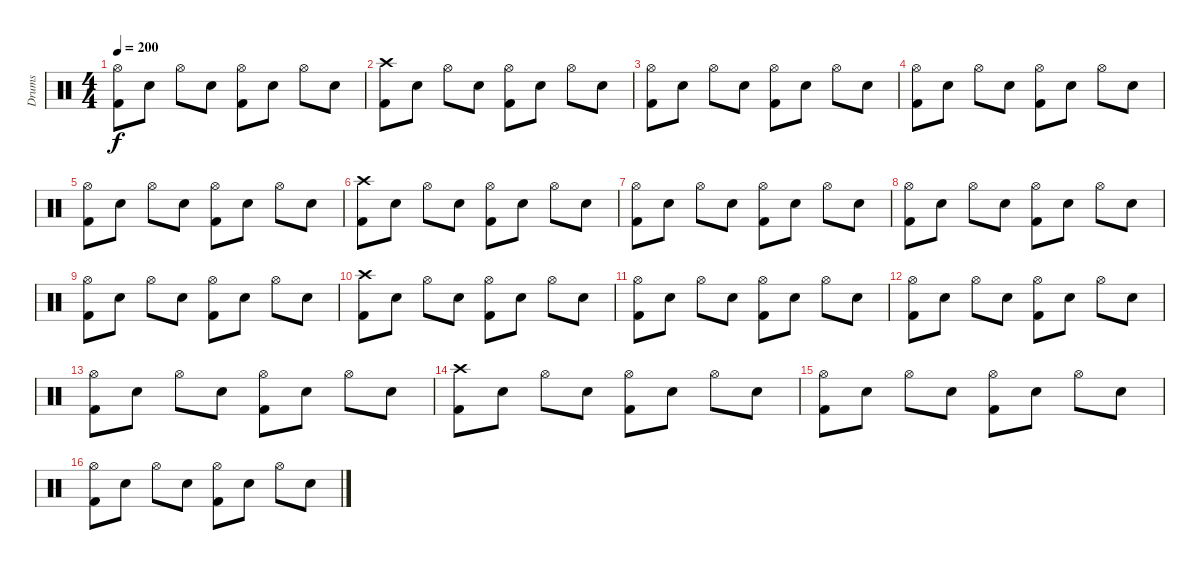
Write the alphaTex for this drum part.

\track ("Drums" "Drums") {instrument percussion}
\staff {score}
\articulation defaults
\ts (4 4)
\tempo 200
\clef neutral
\ks c
("Hi-Hat (open)" "Kick (hit) 2").8{dy f} "Electric Snare (hit)".8 "Hi-Hat (open)".8 "Electric Snare (hit)".8 ("Hi-Hat (open)" "Kick (hit) 2").8 "Electric Snare (hit)".8 "Hi-Hat (open)".8 "Electric Snare (hit)".8 |
("Crash high (hit)" "Kick (hit) 2").8 "Electric Snare (hit)".8 "Hi-Hat (open)".8 "Electric Snare (hit)".8 ("Hi-Hat (open)" "Kick (hit) 2").8 "Electric Snare (hit)".8 "Hi-Hat (open)".8 "Electric Snare (hit)".8 |
("Hi-Hat (open)" "Kick (hit) 2").8 "Electric Snare (hit)".8 "Hi-Hat (open)".8 "Electric Snare (hit)".8 ("Hi-Hat (open)" "Kick (hit) 2").8 "Electric Snare (hit)".8 "Hi-Hat (open)".8 "Electric Snare (hit)".8 |
("Hi-Hat (open)" "Kick (hit) 2").8 "Electric Snare (hit)".8 "Hi-Hat (open)".8 "Electric Snare (hit)".8 ("Hi-Hat (open)" "Kick (hit) 2").8 "Electric Snare (hit)".8 "Hi-Hat (open)".8 "Electric Snare (hit)".8 |
("Hi-Hat (open)" "Kick (hit) 2").8 "Electric Snare (hit)".8 "Hi-Hat (open)".8 "Electric Snare (hit)".8 ("Hi-Hat (open)" "Kick (hit) 2").8 "Electric Snare (hit)".8 "Hi-Hat (open)".8 "Electric Snare (hit)".8 |
("Crash high (hit)" "Kick (hit) 2").8 "Electric Snare (hit)".8 "Hi-Hat (open)".8 "Electric Snare (hit)".8 ("Hi-Hat (open)" "Kick (hit) 2").8 "Electric Snare (hit)".8 "Hi-Hat (open)".8 "Electric Snare (hit)".8 |
("Hi-Hat (open)" "Kick (hit) 2").8 "Electric Snare (hit)".8 "Hi-Hat (open)".8 "Electric Snare (hit)".8 ("Hi-Hat (open)" "Kick (hit) 2").8 "Electric Snare (hit)".8 "Hi-Hat (open)".8 "Electric Snare (hit)".8 |
("Hi-Hat (open)" "Kick (hit) 2").8 "Electric Snare (hit)".8 "Hi-Hat (open)".8 "Electric Snare (hit)".8 ("Hi-Hat (open)" "Kick (hit) 2").8 "Electric Snare (hit)".8 "Hi-Hat (open)".8 "Electric Snare (hit)".8 |
("Hi-Hat (open)" "Kick (hit) 2").8 "Electric Snare (hit)".8 "Hi-Hat (open)".8 "Electric Snare (hit)".8 ("Hi-Hat (open)" "Kick (hit) 2").8 "Electric Snare (hit)".8 "Hi-Hat (open)".8 "Electric Snare (hit)".8 |
("Crash high (hit)" "Kick (hit) 2").8 "Electric Snare (hit)".8 "Hi-Hat (open)".8 "Electric Snare (hit)".8 ("Hi-Hat (open)" "Kick (hit) 2").8 "Electric Snare (hit)".8 "Hi-Hat (open)".8 "Electric Snare (hit)".8 |
("Hi-Hat (open)" "Kick (hit) 2").8 "Electric Snare (hit)".8 "Hi-Hat (open)".8 "Electric Snare (hit)".8 ("Hi-Hat (open)" "Kick (hit) 2").8 "Electric Snare (hit)".8 "Hi-Hat (open)".8 "Electric Snare (hit)".8 |
("Hi-Hat (open)" "Kick (hit) 2").8 "Electric Snare (hit)".8 "Hi-Hat (open)".8 "Electric Snare (hit)".8 ("Hi-Hat (open)" "Kick (hit) 2").8 "Electric Snare (hit)".8 "Hi-Hat (open)".8 "Electric Snare (hit)".8 |
("Hi-Hat (open)" "Kick (hit) 2").8 "Electric Snare (hit)".8 "Hi-Hat (open)".8 "Electric Snare (hit)".8 ("Hi-Hat (open)" "Kick (hit) 2").8 "Electric Snare (hit)".8 "Hi-Hat (open)".8 "Electric Snare (hit)".8 |
("Crash high (hit)" "Kick (hit) 2").8 "Electric Snare (hit)".8 "Hi-Hat (open)".8 "Electric Snare (hit)".8 ("Hi-Hat (open)" "Kick (hit) 2").8 "Electric Snare (hit)".8 "Hi-Hat (open)".8 "Electric Snare (hit)".8 |
("Hi-Hat (open)" "Kick (hit) 2").8 "Electric Snare (hit)".8 "Hi-Hat (open)".8 "Electric Snare (hit)".8 ("Hi-Hat (open)" "Kick (hit) 2").8 "Electric Snare (hit)".8 "Hi-Hat (open)".8 "Electric Snare (hit)".8 |
("Hi-Hat (open)" "Kick (hit) 2").8 "Electric Snare (hit)".8 "Hi-Hat (open)".8 "Electric Snare (hit)".8 ("Hi-Hat (open)" "Kick (hit) 2").8 "Electric Snare (hit)".8 "Hi-Hat (open)".8 "Electric Snare (hit)".8
